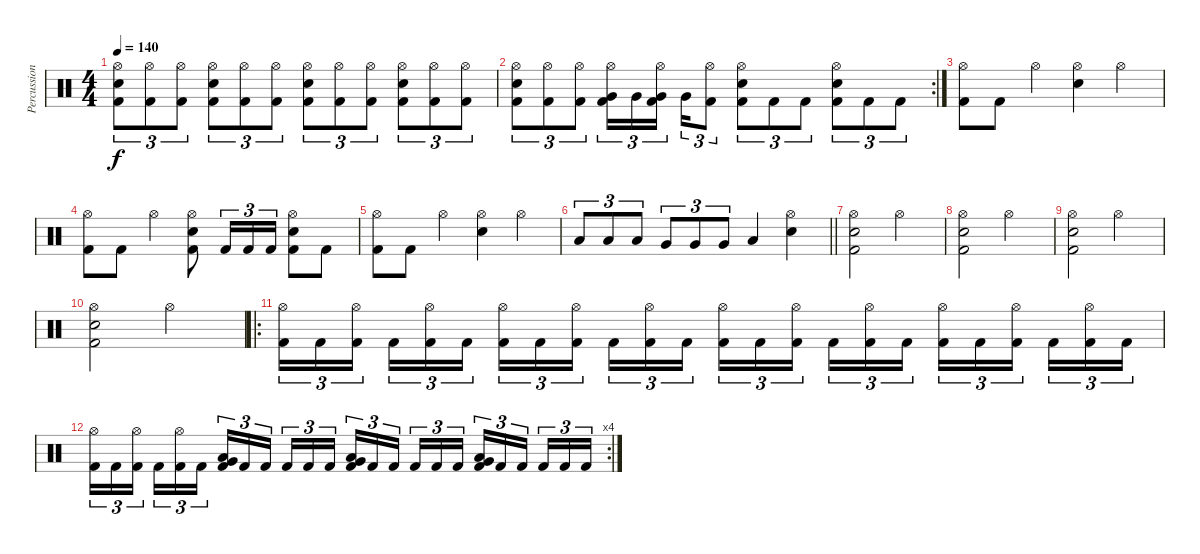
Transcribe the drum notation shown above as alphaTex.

\track ("Percussion" "Percussion") {instrument percussion}
\staff {score}
\articulation defaults
\ts (4 4)
\tempo 140
\clef neutral
\ks c
("Hi-Hat (open)" "Snare (hit) 2" "Kick (hit) 2").8{tu (3 2) dy f} ("Hi-Hat (open)" "Kick (hit) 2").8{tu (3 2)} ("Hi-Hat (open)" "Kick (hit) 2").8{tu (3 2)} ("Hi-Hat (open)" "Snare (hit) 2" "Kick (hit) 2").8{tu (3 2)} ("Hi-Hat (open)" "Kick (hit) 2").8{tu (3 2)} ("Hi-Hat (open)" "Kick (hit) 2").8{tu (3 2)} ("Hi-Hat (open)" "Snare (hit) 2" "Kick (hit) 2").8{tu (3 2)} ("Hi-Hat (open)" "Kick (hit) 2").8{tu (3 2)} ("Hi-Hat (open)" "Kick (hit) 2").8{tu (3 2)} ("Hi-Hat (open)" "Snare (hit) 2" "Kick (hit) 2").8{tu (3 2)} ("Hi-Hat (open)" "Kick (hit) 2").8{tu (3 2)} ("Hi-Hat (open)" "Kick (hit) 2").8{tu (3 2)} |
\rc 2
("Hi-Hat (open)" "Snare (hit) 2" "Kick (hit) 2").8{tu (3 2)} ("Hi-Hat (open)" "Kick (hit) 2").8{tu (3 2)} ("Hi-Hat (open)" "Kick (hit) 2").8{tu (3 2)} ("Hi-Hat (open)" "Very Low Tom (hit)" "Kick (hit) 2").16{tu (3 2)} "Very Low Tom (hit)".16{tu (3 2)} ("Hi-Hat (open)" "Very Low Tom (hit)" "Kick (hit) 2").16{tu (3 2)} "Very Low Tom (hit)".16{tu (3 2)} ("Hi-Hat (open)" "Kick (hit) 2").8{tu (3 2)} ("Hi-Hat (open)" "Snare (hit) 2" "Kick (hit) 2").8{tu (3 2)} "Kick (hit) 2".8{tu (3 2)} "Kick (hit) 2".8{tu (3 2)} ("Hi-Hat (open)" "Snare (hit) 2" "Kick (hit) 2").8{tu (3 2)} "Kick (hit) 2".8{tu (3 2)} "Kick (hit) 2".8{tu (3 2)} |
("Hi-Hat (open)" "Kick (hit) 2").8 "Kick (hit) 2".8 "Hi-Hat (open)".4 ("Hi-Hat (open)" "Snare (hit) 2").4 "Hi-Hat (open)".4 |
("Hi-Hat (open)" "Kick (hit) 2").8 "Kick (hit) 2".8 "Hi-Hat (open)".4 ("Hi-Hat (open)" "Snare (hit) 2" "Kick (hit) 2").8 "Kick (hit) 2".16{tu (3 2)} "Kick (hit) 2".16{tu (3 2)} "Kick (hit) 2".16{tu (3 2)} ("Hi-Hat (open)" "Snare (hit) 2" "Kick (hit) 2").8 "Kick (hit) 2".8 |
("Hi-Hat (open)" "Kick (hit) 2").8 "Kick (hit) 2".8 "Hi-Hat (open)".4 ("Hi-Hat (open)" "Snare (hit) 2").4 "Hi-Hat (open)".4 |
\barLineRight lightlight "Low Tom (hit)".8{tu (3 2)} "Low Tom (hit)".8{tu (3 2)} "Low Tom (hit)".8{tu (3 2)} "Very Low Tom (hit)".8{tu (3 2)} "Very Low Tom (hit)".8{tu (3 2)} "Very Low Tom (hit)".8{tu (3 2)} "Low Floor Tom (hit)".4
("Hi-Hat (open)" "Snare (hit) 2").4 |
("Hi-Hat (open)" "Snare (hit) 2" "Kick (hit) 2").2 "Hi-Hat (open)".2 |
("Hi-Hat (open)" "Snare (hit) 2" "Kick (hit) 2").2 "Hi-Hat (open)".2 |
("Hi-Hat (open)" "Snare (hit) 2" "Kick (hit) 2").2 "Hi-Hat (open)".2 |
("Hi-Hat (open)" "Snare (hit) 2" "Kick (hit) 2").2 "Hi-Hat (open)".2 |
\ro
("Hi-Hat (open)" "Kick (hit) 2").16{tu (3 2)} "Kick (hit) 2".16{tu (3 2)} ("Hi-Hat (open)" "Kick (hit) 2").16{tu (3 2)} "Kick (hit) 2".16{tu (3 2)} ("Hi-Hat (open)" "Kick (hit) 2").16{tu (3 2)} "Kick (hit) 2".16{tu (3 2)} ("Hi-Hat (open)" "Kick (hit) 2").16{tu (3 2)} "Kick (hit) 2".16{tu (3 2)} ("Hi-Hat (open)" "Kick (hit) 2").16{tu (3 2)} "Kick (hit) 2".16{tu (3 2)} ("Hi-Hat (open)" "Kick (hit) 2").16{tu (3 2)} "Kick (hit) 2".16{tu (3 2)} ("Hi-Hat (open)" "Kick (hit) 2").16{tu (3 2)} "Kick (hit) 2".16{tu (3 2)} ("Hi-Hat (open)" "Kick (hit) 2").16{tu (3 2)} "Kick (hit) 2".16{tu (3 2)} ("Hi-Hat (open)" "Kick (hit) 2").16{tu (3 2)} "Kick (hit) 2".16{tu (3 2)} ("Hi-Hat (open)" "Kick (hit) 2").16{tu (3 2)} "Kick (hit) 2".16{tu (3 2)} ("Hi-Hat (open)" "Kick (hit) 2").16{tu (3 2)} "Kick (hit) 2".16{tu (3 2)} ("Hi-Hat (open)" "Kick (hit) 2").16{tu (3 2)} "Kick (hit) 2".16{tu (3 2)} |
\rc 4
("Hi-Hat (open)" "Kick (hit) 2").16{tu (3 2)} "Kick (hit) 2".16{tu (3 2)} ("Hi-Hat (open)" "Kick (hit) 2").16{tu (3 2)} "Kick (hit) 2".16{tu (3 2)} ("Hi-Hat (open)" "Kick (hit) 2").16{tu (3 2)} "Kick (hit) 2".16{tu (3 2)} ("Low Tom (hit)" "Very Low Tom (hit)" "Kick (hit) 2").16{tu (3 2)} "Kick (hit) 2".16{tu (3 2)} "Kick (hit) 2".16{tu (3 2)} "Kick (hit) 2".16{tu (3 2)} "Kick (hit) 2".16{tu (3 2)} "Kick (hit) 2".16{tu (3 2)} ("Low Tom (hit)" "Very Low Tom (hit)" "Kick (hit) 2").16{tu (3 2)} "Kick (hit) 2".16{tu (3 2)} "Kick (hit) 2".16{tu (3 2)} "Kick (hit) 2".16{tu (3 2)} "Kick (hit) 2".16{tu (3 2)} "Kick (hit) 2".16{tu (3 2)} ("Low Tom (hit)" "Very Low Tom (hit)" "Kick (hit) 2").16{tu (3 2)} "Kick (hit) 2".16{tu (3 2)} "Kick (hit) 2".16{tu (3 2)} "Kick (hit) 2".16{tu (3 2)} "Kick (hit) 2".16{tu (3 2)} "Kick (hit) 2".16{tu (3 2)}
